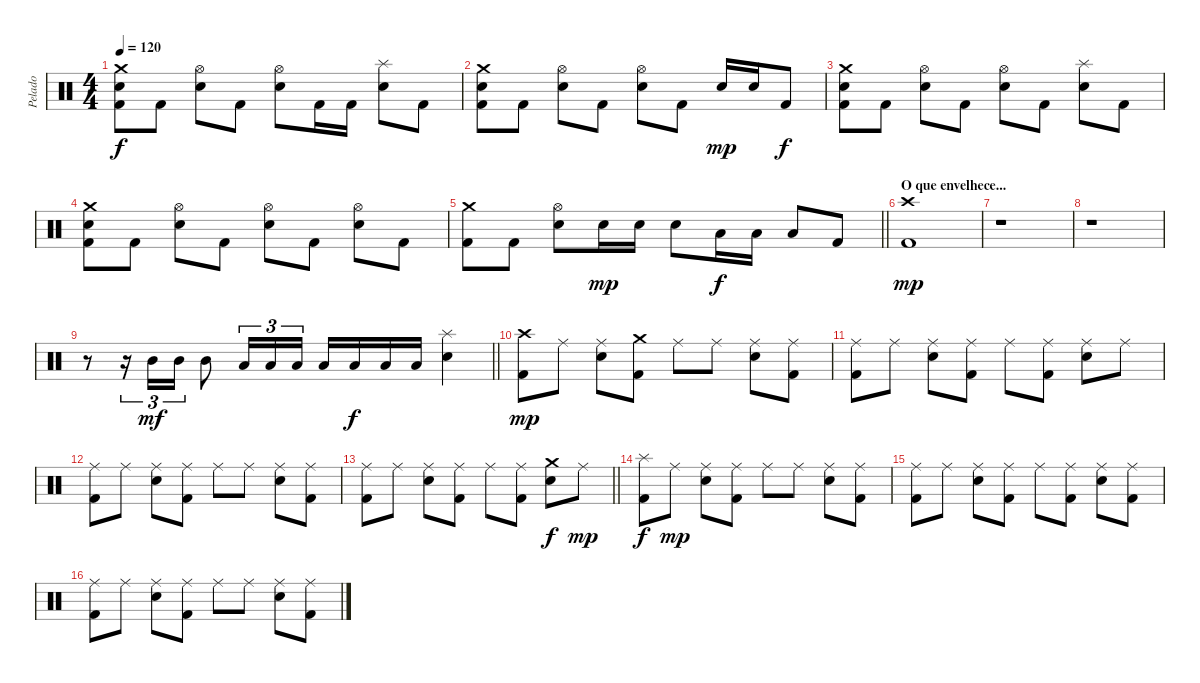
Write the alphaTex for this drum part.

\track ("Pelado" "Pelado") {instrument percussion}
\staff {score}
\articulation defaults
\ts (4 4)
\tempo 120
\clef neutral
\ks c
("Crash medium (hit)" "Electric Snare (hit)" "Kick (hit) 2").8{dy f} "Kick (hit) 2".8 ("Hi-Hat (open)" "Electric Snare (hit)").8 "Kick (hit) 2".8 ("Hi-Hat (open)" "Electric Snare (hit)").8 "Kick (hit) 2".16 "Kick (hit) 2".16 ("Splash (hit)" "Electric Snare (hit)").8 "Kick (hit) 2".8 |
("Crash medium (hit)" "Electric Snare (hit)" "Kick (hit) 2").8 "Kick (hit) 2".8 ("Hi-Hat (open)" "Electric Snare (hit)").8 "Kick (hit) 2".8 ("Hi-Hat (open)" "Electric Snare (hit)").8 "Kick (hit) 2".8 "Electric Snare (hit)".16{dy mp} "Electric Snare (hit)".16 "Kick (hit) 2".8{dy f} |
("Crash medium (hit)" "Electric Snare (hit)" "Kick (hit) 2").8 "Kick (hit) 2".8 ("Hi-Hat (open)" "Electric Snare (hit)").8 "Kick (hit) 2".8 ("Hi-Hat (open)" "Electric Snare (hit)").8 "Kick (hit) 2".8 ("Splash (hit)" "Electric Snare (hit)").8 "Kick (hit) 2".8 |
("Crash medium (hit)" "Electric Snare (hit)" "Kick (hit) 2").8 "Kick (hit) 2".8 ("Hi-Hat (open)" "Electric Snare (hit)").8 "Kick (hit) 2".8 ("Hi-Hat (open)" "Electric Snare (hit)").8 "Kick (hit) 2".8 ("Hi-Hat (open)" "Electric Snare (hit)").8 "Kick (hit) 2".8 |
\barLineRight lightlight
("Crash medium (hit)" "Kick (hit) 2").8 "Kick (hit) 2".8 ("Hi-Hat (open)" "Electric Snare (hit)").8 "Electric Snare (hit)".16{dy mp} "Electric Snare (hit)".16 "Electric Snare (hit)".8 "Low Tom (hit)".16{dy f} "Low Tom (hit)".16 "Low Tom (hit)".8 "Kick (hit) 2".8 |
\section ("" "O que envelhece...")
("Crash high (hit)" "Kick (hit) 2").1{dy mp} |
r.1 |
r.1 |
\barLineRight lightlight
r.8 r.16{tu (3 2)} "Mid Tom (hit)".16{tu (3 2) dy mf} "Mid Tom (hit)".16{tu (3 2)} "Mid Tom (hit)".8 "Low Tom (hit)".16{tu (3 2)} "Low Tom (hit)".16{tu (3 2)} "Low Tom (hit)".16{tu (3 2)} "Low Tom (hit)".16 "Low Tom (hit)".16{dy f} "Low Tom (hit)".16 "Low Tom (hit)".16 ("Splash (hit)" "Electric Snare (hit)").4 |
("Crash high (hit)" "Kick (hit) 2").8{dy mp} "Ride (middle)".8 ("Ride (middle)" "Electric Snare (hit)").8 ("Crash medium (hit)" "Kick (hit) 2").8 "Ride (middle)".8 "Ride (middle)".8 ("Ride (middle)" "Electric Snare (hit)").8 ("Ride (middle)" "Kick (hit) 2").8 |
("Ride (middle)" "Kick (hit) 2").8 "Ride (middle)".8 ("Ride (middle)" "Electric Snare (hit)").8 ("Ride (middle)" "Kick (hit) 2").8 "Ride (middle)".8 ("Ride (middle)" "Kick (hit) 2").8 ("Ride (middle)" "Electric Snare (hit)").8 "Ride (middle)".8 |
("Ride (middle)" "Kick (hit) 2").8 "Ride (middle)".8 ("Ride (middle)" "Electric Snare (hit)").8 ("Ride (middle)" "Kick (hit) 2").8 "Ride (middle)".8 "Ride (middle)".8 ("Ride (middle)" "Electric Snare (hit)").8 ("Ride (middle)" "Kick (hit) 2").8 |
\barLineRight lightlight
("Ride (middle)" "Kick (hit) 2").8 "Ride (middle)".8 ("Ride (middle)" "Electric Snare (hit)").8 ("Ride (middle)" "Kick (hit) 2").8 "Ride (middle)".8 ("Ride (middle)" "Kick (hit) 2").8 ("Crash medium (hit)" "Electric Snare (hit)").8{dy f} "Ride (middle)".8{dy mp} |
("Splash (hit)" "Kick (hit) 2").8{dy f} "Ride (middle)".8{dy mp} ("Ride (middle)" "Electric Snare (hit)").8 ("Ride (middle)" "Kick (hit) 2").8 "Ride (middle)".8 "Ride (middle)".8 ("Ride (middle)" "Electric Snare (hit)").8 ("Ride (middle)" "Kick (hit) 2").8 |
("Ride (middle)" "Kick (hit) 2").8 "Ride (middle)".8 ("Ride (middle)" "Electric Snare (hit)").8 ("Ride (middle)" "Kick (hit) 2").8 "Ride (middle)".8 ("Ride (middle)" "Kick (hit) 2").8 ("Ride (middle)" "Electric Snare (hit)").8 ("Ride (middle)" "Kick (hit) 2").8 |
("Ride (middle)" "Kick (hit) 2").8 "Ride (middle)".8 ("Ride (middle)" "Electric Snare (hit)").8 ("Ride (middle)" "Kick (hit) 2").8 "Ride (middle)".8 "Ride (middle)".8 ("Ride (middle)" "Electric Snare (hit)").8 ("Ride (middle)" "Kick (hit) 2").8
